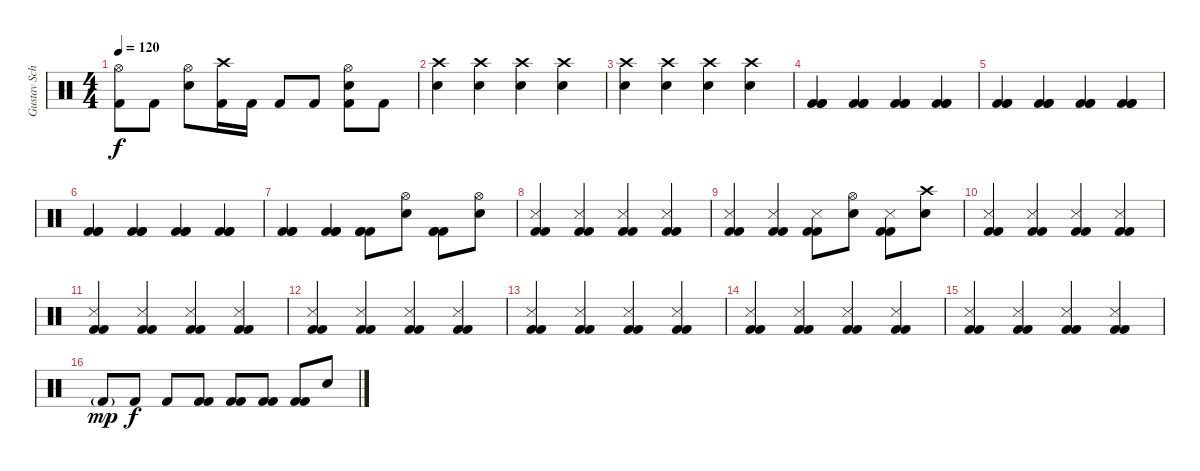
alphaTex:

\track ("Gustav Schäfer" "Gustav Sch") {instrument percussion}
\staff {score}
\articulation defaults
\ts (4 4)
\tempo 120
\clef neutral
\ks c
("Hi-Hat (open)" "Kick (hit) 2").8{dy f} "Kick (hit) 2".8 ("Hi-Hat (open)" "Electric Snare (hit)").8 ("Crash high (hit)" "Kick (hit) 2").16 "Kick (hit) 2".16 "Kick (hit) 2".8 "Kick (hit) 2".8 ("Hi-Hat (open)" "Electric Snare (hit)" "Kick (hit) 2").8 "Kick (hit) 2".8 |
("Crash high (hit)" "Electric Snare (hit)").4 ("Crash high (hit)" "Electric Snare (hit)").4 ("Crash high (hit)" "Electric Snare (hit)").4 ("Crash high (hit)" "Electric Snare (hit)").4 |
("Crash high (hit)" "Electric Snare (hit)").4 ("Crash high (hit)" "Electric Snare (hit)").4 ("Crash high (hit)" "Electric Snare (hit)").4 ("Crash high (hit)" "Electric Snare (hit)").4 |
("Kick (hit) 2" "Kick (hit) 2" "Kick (hit) 2").4 ("Kick (hit) 2" "Kick (hit) 2" "Kick (hit) 2").4 ("Kick (hit) 2" "Kick (hit) 2" "Kick (hit) 2").4 ("Kick (hit) 2" "Kick (hit) 2" "Kick (hit) 2").4 |
("Kick (hit) 2" "Kick (hit) 2" "Kick (hit) 2").4 ("Kick (hit) 2" "Kick (hit) 2" "Kick (hit) 2").4 ("Kick (hit) 2" "Kick (hit) 2" "Kick (hit) 2").4 ("Kick (hit) 2" "Kick (hit) 2" "Kick (hit) 2").4 |
("Kick (hit) 2" "Kick (hit) 2" "Kick (hit) 2").4 ("Kick (hit) 2" "Kick (hit) 2" "Kick (hit) 2").4 ("Kick (hit) 2" "Kick (hit) 2" "Kick (hit) 2").4 ("Kick (hit) 2" "Kick (hit) 2" "Kick (hit) 2").4 |
("Kick (hit) 2" "Kick (hit) 2" "Kick (hit) 2").4 ("Kick (hit) 2" "Kick (hit) 2" "Kick (hit) 2").4 ("Kick (hit) 2" "Kick (hit) 2" "Kick (hit) 2").8 ("Hi-Hat (open)" "Electric Snare (hit)").8 ("Kick (hit) 2" "Kick (hit) 2" "Kick (hit) 2").8 ("Hi-Hat (open)" "Electric Snare (hit)").8 |
("Kick (hit) 2" "Snare (side stick) 3" "Kick (hit) 2").4 ("Kick (hit) 2" "Snare (side stick) 3" "Kick (hit) 2").4 ("Kick (hit) 2" "Snare (side stick) 3" "Kick (hit) 2").4 ("Kick (hit) 2" "Snare (side stick) 3" "Kick (hit) 2").4 |
("Kick (hit) 2" "Snare (side stick) 3" "Kick (hit) 2").4 ("Kick (hit) 2" "Snare (side stick) 3" "Kick (hit) 2").4 ("Kick (hit) 2" "Snare (side stick) 3" "Kick (hit) 2").8 ("Electric Snare (hit)" "Hi-Hat (open)").8 ("Kick (hit) 2" "Snare (side stick) 3" "Kick (hit) 2").8 ("Electric Snare (hit)" "Crash high (hit)").8 |
("Kick (hit) 2" "Snare (side stick) 3" "Kick (hit) 2").4 ("Kick (hit) 2" "Snare (side stick) 3" "Kick (hit) 2").4 ("Kick (hit) 2" "Snare (side stick) 3" "Kick (hit) 2").4 ("Kick (hit) 2" "Snare (side stick) 3" "Kick (hit) 2").4 |
("Kick (hit) 2" "Snare (side stick) 3" "Kick (hit) 2").4 ("Kick (hit) 2" "Snare (side stick) 3" "Kick (hit) 2").4 ("Kick (hit) 2" "Snare (side stick) 3" "Kick (hit) 2").4 ("Kick (hit) 2" "Snare (side stick) 3" "Kick (hit) 2").4 |
("Kick (hit) 2" "Snare (side stick) 3" "Kick (hit) 2").4 ("Kick (hit) 2" "Snare (side stick) 3" "Kick (hit) 2").4 ("Kick (hit) 2" "Snare (side stick) 3" "Kick (hit) 2").4 ("Kick (hit) 2" "Snare (side stick) 3" "Kick (hit) 2").4 |
("Kick (hit) 2" "Snare (side stick) 3" "Kick (hit) 2").4 ("Kick (hit) 2" "Snare (side stick) 3" "Kick (hit) 2").4 ("Kick (hit) 2" "Snare (side stick) 3" "Kick (hit) 2").4 ("Kick (hit) 2" "Snare (side stick) 3" "Kick (hit) 2").4 |
("Kick (hit) 2" "Snare (side stick) 3" "Kick (hit) 2").4 ("Kick (hit) 2" "Snare (side stick) 3" "Kick (hit) 2").4 ("Kick (hit) 2" "Snare (side stick) 3" "Kick (hit) 2").4 ("Kick (hit) 2" "Snare (side stick) 3" "Kick (hit) 2").4 |
("Kick (hit) 2" "Snare (side stick) 3" "Kick (hit) 2").4 ("Kick (hit) 2" "Snare (side stick) 3" "Kick (hit) 2").4 ("Kick (hit) 2" "Snare (side stick) 3" "Kick (hit) 2").4 ("Kick (hit) 2" "Snare (side stick) 3" "Kick (hit) 2").4 |
"Kick (hit) 2"{g}.8{dy mp} "Kick (hit) 2".8{dy f} "Kick (hit) 2".8 ("Kick (hit) 2" "Kick (hit) 2").8 ("Kick (hit) 2" "Kick (hit) 2").8 ("Kick (hit) 2" "Kick (hit) 2").8 ("Kick (hit) 2" "Kick (hit) 2").8 "Electric Snare (hit)".8
